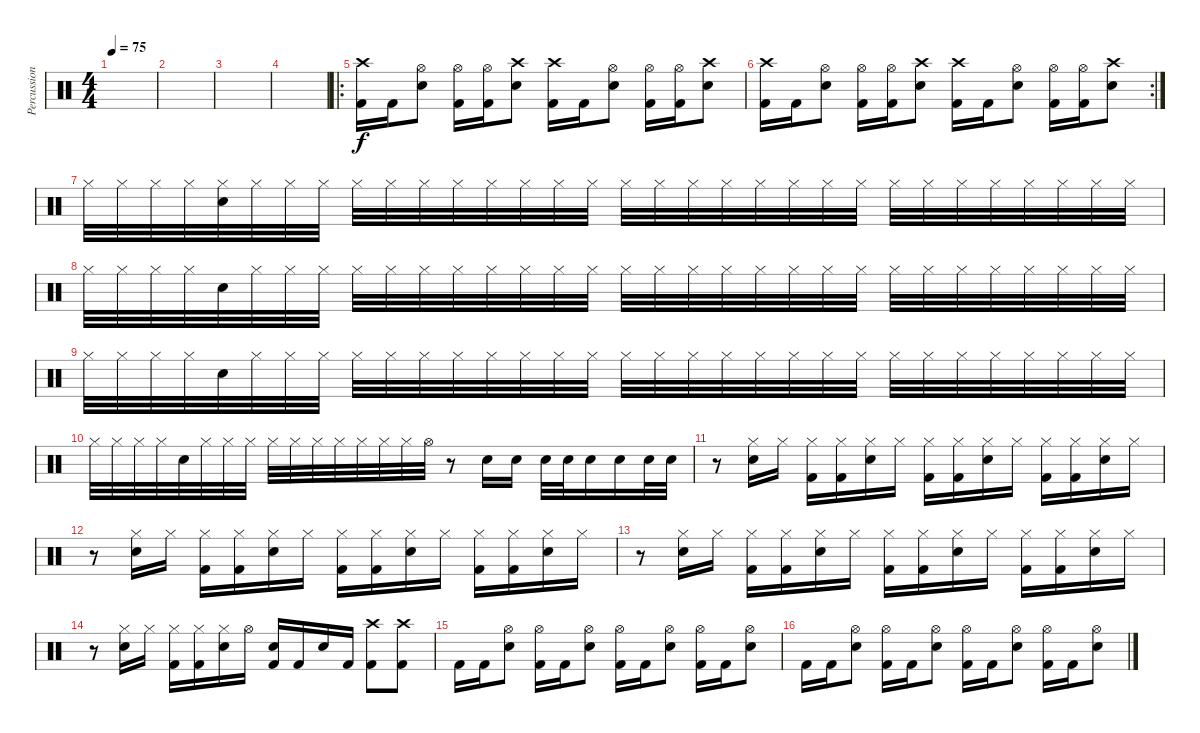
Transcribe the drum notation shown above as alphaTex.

\track ("Percussion" "Percussion") {instrument percussion}
\staff {score}
\articulation defaults
\ts (4 4)
\tempo 75
\clef neutral
\ks c
|
|
|
|
\ro
("Crash high (hit)" "Kick (hit) 2").16 "Kick (hit) 2".16 ("Hi-Hat (open)" "Snare (hit) 2").8 ("Hi-Hat (open)" "Kick (hit) 2").16 ("Hi-Hat (open)" "Kick (hit) 2").16 ("Crash high (hit)" "Snare (hit) 2").8 ("Crash high (hit)" "Kick (hit) 2").16 "Kick (hit) 2".16 ("Hi-Hat (open)" "Snare (hit) 2").8 ("Hi-Hat (open)" "Kick (hit) 2").16 ("Hi-Hat (open)" "Kick (hit) 2").16 ("Crash high (hit)" "Snare (hit) 2").8 |
\rc 2
("Crash high (hit)" "Kick (hit) 2").16 "Kick (hit) 2".16 ("Hi-Hat (open)" "Snare (hit) 2").8 ("Hi-Hat (open)" "Kick (hit) 2").16 ("Hi-Hat (open)" "Kick (hit) 2").16 ("Crash high (hit)" "Snare (hit) 2").8 ("Crash high (hit)" "Kick (hit) 2").16 "Kick (hit) 2".16 ("Hi-Hat (open)" "Snare (hit) 2").8 ("Hi-Hat (open)" "Kick (hit) 2").16 ("Hi-Hat (open)" "Kick (hit) 2").16 ("Crash high (hit)" "Snare (hit) 2").8 |
"Hi-Hat (closed)".32 "Hi-Hat (closed)".32 "Hi-Hat (closed)".32 "Hi-Hat (closed)".32 ("Snare (hit) 2" "Hi-Hat (closed)").32 "Hi-Hat (closed)".32 "Hi-Hat (closed)".32 "Hi-Hat (closed)".32 "Hi-Hat (closed)".32 "Hi-Hat (closed)".32 "Hi-Hat (closed)".32 "Hi-Hat (closed)".32 "Hi-Hat (closed)".32 "Hi-Hat (closed)".32 "Hi-Hat (closed)".32 "Hi-Hat (closed)".32 "Hi-Hat (closed)".32 "Hi-Hat (closed)".32 "Hi-Hat (closed)".32 "Hi-Hat (closed)".32 "Hi-Hat (closed)".32 "Hi-Hat (closed)".32 "Hi-Hat (closed)".32 "Hi-Hat (closed)".32 "Hi-Hat (closed)".32 "Hi-Hat (closed)".32 "Hi-Hat (closed)".32 "Hi-Hat (closed)".32 "Hi-Hat (closed)".32 "Hi-Hat (closed)".32 "Hi-Hat (closed)".32 "Hi-Hat (closed)".32 |
"Hi-Hat (closed)".32 "Hi-Hat (closed)".32 "Hi-Hat (closed)".32 "Hi-Hat (closed)".32 "Snare (hit) 2".32 "Hi-Hat (closed)".32 "Hi-Hat (closed)".32 "Hi-Hat (closed)".32 "Hi-Hat (closed)".32 "Hi-Hat (closed)".32 "Hi-Hat (closed)".32 "Hi-Hat (closed)".32 "Hi-Hat (closed)".32 "Hi-Hat (closed)".32 "Hi-Hat (closed)".32 "Hi-Hat (closed)".32 "Hi-Hat (closed)".32 "Hi-Hat (closed)".32 "Hi-Hat (closed)".32 "Hi-Hat (closed)".32 "Hi-Hat (closed)".32 "Hi-Hat (closed)".32 "Hi-Hat (closed)".32 "Hi-Hat (closed)".32 "Hi-Hat (closed)".32 "Hi-Hat (closed)".32 "Hi-Hat (closed)".32 "Hi-Hat (closed)".32 "Hi-Hat (closed)".32 "Hi-Hat (closed)".32 "Hi-Hat (closed)".32 "Hi-Hat (closed)".32 |
"Hi-Hat (closed)".32 "Hi-Hat (closed)".32 "Hi-Hat (closed)".32 "Hi-Hat (closed)".32 "Snare (hit) 2".32 "Hi-Hat (closed)".32 "Hi-Hat (closed)".32 "Hi-Hat (closed)".32 "Hi-Hat (closed)".32 "Hi-Hat (closed)".32 "Hi-Hat (closed)".32 "Hi-Hat (closed)".32 "Hi-Hat (closed)".32 "Hi-Hat (closed)".32 "Hi-Hat (closed)".32 "Hi-Hat (closed)".32 "Hi-Hat (closed)".32 "Hi-Hat (closed)".32 "Hi-Hat (closed)".32 "Hi-Hat (closed)".32 "Hi-Hat (closed)".32 "Hi-Hat (closed)".32 "Hi-Hat (closed)".32 "Hi-Hat (closed)".32 "Hi-Hat (closed)".32 "Hi-Hat (closed)".32 "Hi-Hat (closed)".32 "Hi-Hat (closed)".32 "Hi-Hat (closed)".32 "Hi-Hat (closed)".32 "Hi-Hat (closed)".32 "Hi-Hat (closed)".32 |
"Hi-Hat (closed)".32 "Hi-Hat (closed)".32 "Hi-Hat (closed)".32 "Hi-Hat (closed)".32 "Snare (hit) 2".32 "Hi-Hat (closed)".32 "Hi-Hat (closed)".32 "Hi-Hat (closed)".32 "Hi-Hat (closed)".32 "Hi-Hat (closed)".32 "Hi-Hat (closed)".32 "Hi-Hat (closed)".32 "Hi-Hat (closed)".32 "Hi-Hat (closed)".32 "Hi-Hat (closed)".32 "Hi-Hat (open)".32 r.8 "Snare (hit) 2".16 "Snare (hit) 2".16 "Snare (hit) 2".32 "Snare (hit) 2".32 "Snare (hit) 2".16 "Snare (hit) 2".16 "Snare (hit) 2".32 "Snare (hit) 2".32 |
r.8 ("Hi-Hat (closed)" "Snare (hit) 2").16 "Hi-Hat (closed)".16 ("Hi-Hat (closed)" "Kick (hit) 2").16 ("Hi-Hat (closed)" "Kick (hit) 2").16 ("Hi-Hat (closed)" "Snare (hit) 2").16 "Hi-Hat (closed)".16 ("Hi-Hat (closed)" "Kick (hit) 2").16 ("Hi-Hat (closed)" "Kick (hit) 2").16 ("Hi-Hat (closed)" "Snare (hit) 2").16 "Hi-Hat (closed)".16 ("Hi-Hat (closed)" "Kick (hit) 2").16 ("Hi-Hat (closed)" "Kick (hit) 2").16 ("Hi-Hat (closed)" "Snare (hit) 2").16 "Hi-Hat (closed)".16 |
r.8 ("Hi-Hat (closed)" "Snare (hit) 2").16 "Hi-Hat (closed)".16 ("Hi-Hat (closed)" "Kick (hit) 2").16 ("Hi-Hat (closed)" "Kick (hit) 2").16 ("Hi-Hat (closed)" "Snare (hit) 2").16 "Hi-Hat (closed)".16 ("Hi-Hat (closed)" "Kick (hit) 2").16 ("Hi-Hat (closed)" "Kick (hit) 2").16 ("Hi-Hat (closed)" "Snare (hit) 2").16 "Hi-Hat (closed)".16 ("Hi-Hat (closed)" "Kick (hit) 2").16 ("Hi-Hat (closed)" "Kick (hit) 2").16 ("Hi-Hat (closed)" "Snare (hit) 2").16 "Hi-Hat (closed)".16 |
r.8 ("Hi-Hat (closed)" "Snare (hit) 2").16 "Hi-Hat (closed)".16 ("Hi-Hat (closed)" "Kick (hit) 2").16 ("Hi-Hat (closed)" "Kick (hit) 2").16 ("Hi-Hat (closed)" "Snare (hit) 2").16 "Hi-Hat (closed)".16 ("Hi-Hat (closed)" "Kick (hit) 2").16 ("Hi-Hat (closed)" "Kick (hit) 2").16 ("Hi-Hat (closed)" "Snare (hit) 2").16 "Hi-Hat (closed)".16 ("Hi-Hat (closed)" "Kick (hit) 2").16 ("Hi-Hat (closed)" "Kick (hit) 2").16 ("Hi-Hat (closed)" "Snare (hit) 2").16 "Hi-Hat (closed)".16 |
r.8 ("Hi-Hat (closed)" "Snare (hit) 2").16 "Hi-Hat (closed)".16 ("Hi-Hat (closed)" "Kick (hit) 2").16 ("Hi-Hat (closed)" "Kick (hit) 2").16 ("Hi-Hat (closed)" "Snare (hit) 2").16 "Hi-Hat (open)".16 ("Snare (hit) 2" "Kick (hit) 2").16 "Kick (hit) 2".16 "Snare (hit) 2".16 "Kick (hit) 2".16 ("Crash high (hit)" "Kick (hit) 2").8 ("Crash high (hit)" "Kick (hit) 2").8 |
"Kick (hit) 2".16 "Kick (hit) 2".16 ("Hi-Hat (open)" "Snare (hit) 2").8 ("Hi-Hat (open)" "Kick (hit) 2").16 "Kick (hit) 2".16 ("Hi-Hat (open)" "Snare (hit) 2").8 ("Hi-Hat (open)" "Kick (hit) 2").16 "Kick (hit) 2".16 ("Hi-Hat (open)" "Snare (hit) 2").8 ("Hi-Hat (open)" "Kick (hit) 2").16 "Kick (hit) 2".16 ("Hi-Hat (open)" "Snare (hit) 2").8 |
"Kick (hit) 2".16 "Kick (hit) 2".16 ("Hi-Hat (open)" "Snare (hit) 2").8 ("Hi-Hat (open)" "Kick (hit) 2").16 "Kick (hit) 2".16 ("Hi-Hat (open)" "Snare (hit) 2").8 ("Hi-Hat (open)" "Kick (hit) 2").16 "Kick (hit) 2".16 ("Hi-Hat (open)" "Snare (hit) 2").8 ("Hi-Hat (open)" "Kick (hit) 2").16 "Kick (hit) 2".16 ("Hi-Hat (open)" "Snare (hit) 2").8
